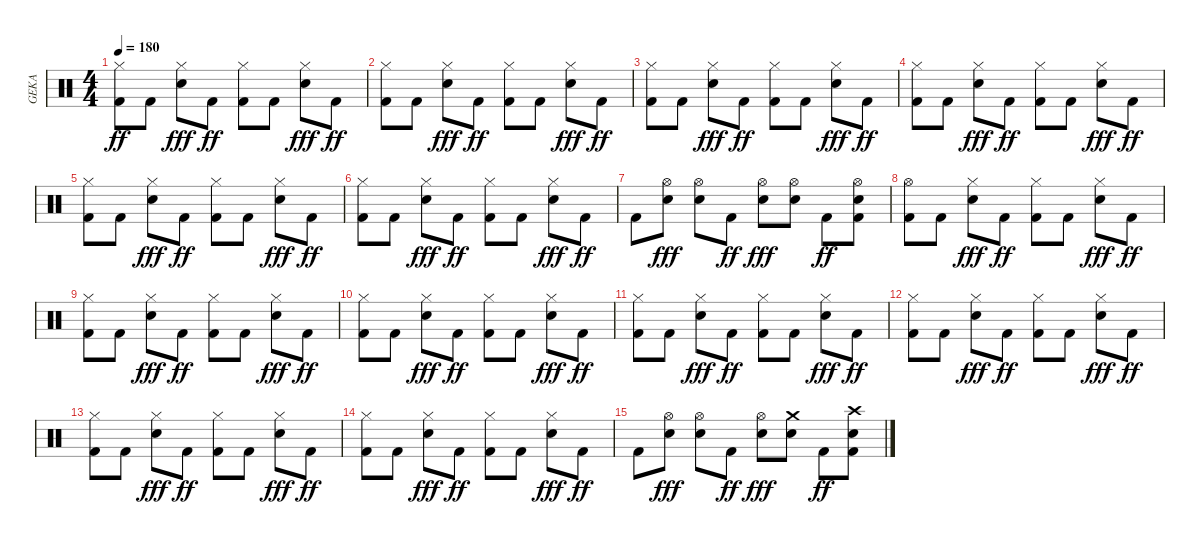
\track ("GEKA" "GEKA") {instrument percussion}
\staff {score}
\articulation defaults
\ts (4 4)
\tempo 180
\clef neutral
\ks c
("Hi-Hat (closed)" "Kick (hit) 2").8{dy ff} "Kick (hit) 2".8 ("Hi-Hat (closed)" "Snare (hit) 2").8{dy fff} "Kick (hit) 2".8{dy ff} ("Hi-Hat (closed)" "Kick (hit) 2").8 "Kick (hit) 2".8 ("Hi-Hat (closed)" "Snare (hit) 2").8{dy fff} "Kick (hit) 2".8{dy ff} |
("Hi-Hat (closed)" "Kick (hit) 2").8 "Kick (hit) 2".8 ("Hi-Hat (closed)" "Snare (hit) 2").8{dy fff} "Kick (hit) 2".8{dy ff} ("Hi-Hat (closed)" "Kick (hit) 2").8 "Kick (hit) 2".8 ("Hi-Hat (closed)" "Snare (hit) 2").8{dy fff} "Kick (hit) 2".8{dy ff} |
("Hi-Hat (closed)" "Kick (hit) 2").8 "Kick (hit) 2".8 ("Hi-Hat (closed)" "Snare (hit) 2").8{dy fff} "Kick (hit) 2".8{dy ff} ("Hi-Hat (closed)" "Kick (hit) 2").8 "Kick (hit) 2".8 ("Hi-Hat (closed)" "Snare (hit) 2").8{dy fff} "Kick (hit) 2".8{dy ff} |
("Hi-Hat (closed)" "Kick (hit) 2").8 "Kick (hit) 2".8 ("Hi-Hat (closed)" "Snare (hit) 2").8{dy fff} "Kick (hit) 2".8{dy ff} ("Hi-Hat (closed)" "Kick (hit) 2").8 "Kick (hit) 2".8 ("Hi-Hat (closed)" "Snare (hit) 2").8{dy fff} "Kick (hit) 2".8{dy ff} |
("Hi-Hat (closed)" "Kick (hit) 2").8 "Kick (hit) 2".8 ("Hi-Hat (closed)" "Snare (hit) 2").8{dy fff} "Kick (hit) 2".8{dy ff} ("Hi-Hat (closed)" "Kick (hit) 2").8 "Kick (hit) 2".8 ("Hi-Hat (closed)" "Snare (hit) 2").8{dy fff} "Kick (hit) 2".8{dy ff} |
("Hi-Hat (closed)" "Kick (hit) 2").8 "Kick (hit) 2".8 ("Hi-Hat (closed)" "Snare (hit) 2").8{dy fff} "Kick (hit) 2".8{dy ff} ("Hi-Hat (closed)" "Kick (hit) 2").8 "Kick (hit) 2".8 ("Hi-Hat (closed)" "Snare (hit) 2").8{dy fff} "Kick (hit) 2".8{dy ff} |
"Kick (hit) 2".8 ("Hi-Hat (open)" "Snare (hit) 2").8{dy fff} ("Hi-Hat (open)" "Snare (hit) 2").8 "Kick (hit) 2".8{dy ff} ("Hi-Hat (open)" "Snare (hit) 2").8{dy fff} ("Hi-Hat (open)" "Snare (hit) 2").8 "Kick (hit) 2".8{dy ff} ("Hi-Hat (open)" "Snare (hit) 2" "Kick (hit) 2").8 |
("Hi-Hat (open)" "Kick (hit) 2").8 "Kick (hit) 2".8 ("Hi-Hat (closed)" "Snare (hit) 2").8{dy fff} "Kick (hit) 2".8{dy ff} ("Hi-Hat (closed)" "Kick (hit) 2").8 "Kick (hit) 2".8 ("Hi-Hat (closed)" "Snare (hit) 2").8{dy fff} "Kick (hit) 2".8{dy ff} |
("Hi-Hat (closed)" "Kick (hit) 2").8 "Kick (hit) 2".8 ("Hi-Hat (closed)" "Snare (hit) 2").8{dy fff} "Kick (hit) 2".8{dy ff} ("Hi-Hat (closed)" "Kick (hit) 2").8 "Kick (hit) 2".8 ("Hi-Hat (closed)" "Snare (hit) 2").8{dy fff} "Kick (hit) 2".8{dy ff} |
("Hi-Hat (closed)" "Kick (hit) 2").8 "Kick (hit) 2".8 ("Hi-Hat (closed)" "Snare (hit) 2").8{dy fff} "Kick (hit) 2".8{dy ff} ("Hi-Hat (closed)" "Kick (hit) 2").8 "Kick (hit) 2".8 ("Hi-Hat (closed)" "Snare (hit) 2").8{dy fff} "Kick (hit) 2".8{dy ff} |
("Hi-Hat (closed)" "Kick (hit) 2").8 "Kick (hit) 2".8 ("Hi-Hat (closed)" "Snare (hit) 2").8{dy fff} "Kick (hit) 2".8{dy ff} ("Hi-Hat (closed)" "Kick (hit) 2").8 "Kick (hit) 2".8 ("Hi-Hat (closed)" "Snare (hit) 2").8{dy fff} "Kick (hit) 2".8{dy ff} |
("Hi-Hat (closed)" "Kick (hit) 2").8 "Kick (hit) 2".8 ("Hi-Hat (closed)" "Snare (hit) 2").8{dy fff} "Kick (hit) 2".8{dy ff} ("Hi-Hat (closed)" "Kick (hit) 2").8 "Kick (hit) 2".8 ("Hi-Hat (closed)" "Snare (hit) 2").8{dy fff} "Kick (hit) 2".8{dy ff} |
("Hi-Hat (closed)" "Kick (hit) 2").8 "Kick (hit) 2".8 ("Hi-Hat (closed)" "Snare (hit) 2").8{dy fff} "Kick (hit) 2".8{dy ff} ("Hi-Hat (closed)" "Kick (hit) 2").8 "Kick (hit) 2".8 ("Hi-Hat (closed)" "Snare (hit) 2").8{dy fff} "Kick (hit) 2".8{dy ff} |
("Hi-Hat (closed)" "Kick (hit) 2").8 "Kick (hit) 2".8 ("Hi-Hat (closed)" "Snare (hit) 2").8{dy fff} "Kick (hit) 2".8{dy ff} ("Hi-Hat (closed)" "Kick (hit) 2").8 "Kick (hit) 2".8 ("Hi-Hat (closed)" "Snare (hit) 2").8{dy fff} "Kick (hit) 2".8{dy ff} |
"Kick (hit) 2".8 ("Hi-Hat (open)" "Snare (hit) 2").8{dy fff} ("Hi-Hat (open)" "Snare (hit) 2").8 "Kick (hit) 2".8{dy ff} ("Hi-Hat (open)" "Snare (hit) 2").8{dy fff} ("Crash medium (hit)" "Snare (hit) 2").8 "Kick (hit) 2".8{dy ff} ("Crash high (hit)" "Snare (hit) 2" "Kick (hit) 2").8
